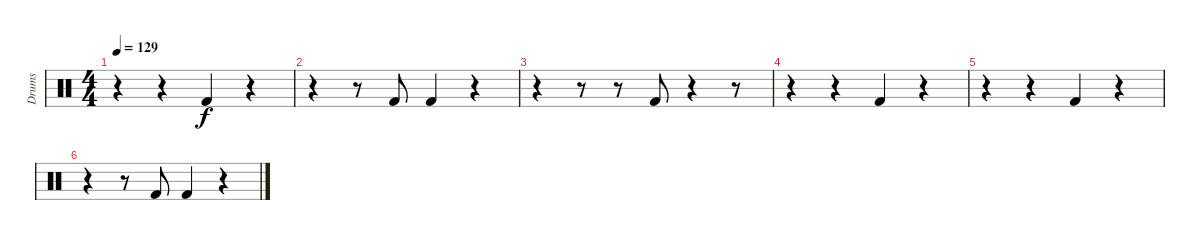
\track ("Drums" "Drums") {instrument percussion}
\staff {score}
\articulation defaults
\ts (4 4)
\tempo 129
\clef neutral
\ks c
r.4{dy f} r.4 "Kick (hit) 2".4 r.4 |
r.4 r.8 "Kick (hit) 2".8 "Kick (hit) 2".4 r.4 |
r.4 r.8 r.8 "Kick (hit) 2".8 r.4 r.8 |
r.4 r.4 "Kick (hit) 2".4 r.4 |
r.4 r.4 "Kick (hit) 2".4 r.4 |
r.4 r.8 "Kick (hit) 2".8 "Kick (hit) 2".4 r.4
